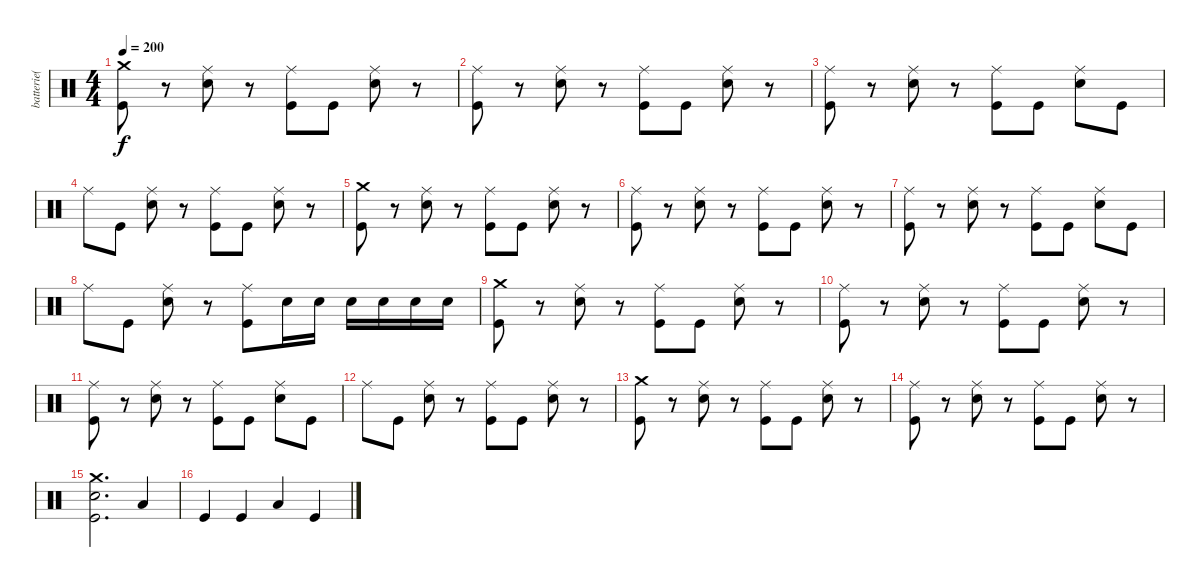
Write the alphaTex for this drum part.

\track ("batterie( Meggers )" "batterie( ") {instrument percussion}
\staff {score}
\articulation defaults
\ts (4 4)
\tempo 200
\clef neutral
\ks c
("Crash medium (hit)" "Kick (hit)").8{dy f} r.8 ("Ride (middle)" "Snare (hit) 2").8 r.8 ("Ride (middle)" "Kick (hit)").8 "Kick (hit)".8 ("Ride (middle)" "Snare (hit) 2").8 r.8 |
("Ride (middle)" "Kick (hit)").8 r.8 ("Ride (middle)" "Snare (hit) 2").8 r.8 ("Ride (middle)" "Kick (hit)").8 "Kick (hit)".8 ("Ride (middle)" "Snare (hit) 2").8 r.8 |
("Ride (middle)" "Kick (hit)").8 r.8 ("Ride (middle)" "Snare (hit) 2").8 r.8 ("Ride (middle)" "Kick (hit)").8 "Kick (hit)".8 ("Ride (middle)" "Snare (hit) 2").8 "Kick (hit)".8 |
"Ride (middle)".8 "Kick (hit)".8 ("Ride (middle)" "Snare (hit) 2").8 r.8 ("Ride (middle)" "Kick (hit)").8 "Kick (hit)".8 ("Ride (middle)" "Snare (hit) 2").8 r.8 |
("Crash medium (hit)" "Kick (hit)").8 r.8 ("Ride (middle)" "Snare (hit) 2").8 r.8 ("Ride (middle)" "Kick (hit)").8 "Kick (hit)".8 ("Ride (middle)" "Snare (hit) 2").8 r.8 |
("Ride (middle)" "Kick (hit)").8 r.8 ("Ride (middle)" "Snare (hit) 2").8 r.8 ("Ride (middle)" "Kick (hit)").8 "Kick (hit)".8 ("Ride (middle)" "Snare (hit) 2").8 r.8 |
("Ride (middle)" "Kick (hit)").8 r.8 ("Ride (middle)" "Snare (hit) 2").8 r.8 ("Ride (middle)" "Kick (hit)").8 "Kick (hit)".8 ("Ride (middle)" "Snare (hit) 2").8 "Kick (hit)".8 |
"Ride (middle)".8 "Kick (hit)".8 ("Ride (middle)" "Snare (hit) 2").8 r.8 ("Ride (middle)" "Kick (hit)").8 "Snare (hit) 2".16 "Snare (hit) 2".16 "Snare (hit) 2".16 "Snare (hit) 2".16 "Snare (hit) 2".16 "Snare (hit) 2".16 |
("Crash medium (hit)" "Kick (hit)").8 r.8 ("Ride (middle)" "Snare (hit) 2").8 r.8 ("Ride (middle)" "Kick (hit)").8 "Kick (hit)".8 ("Ride (middle)" "Snare (hit) 2").8 r.8 |
("Ride (middle)" "Kick (hit)").8 r.8 ("Ride (middle)" "Snare (hit) 2").8 r.8 ("Ride (middle)" "Kick (hit)").8 "Kick (hit)".8 ("Ride (middle)" "Snare (hit) 2").8 r.8 |
("Ride (middle)" "Kick (hit)").8 r.8 ("Ride (middle)" "Snare (hit) 2").8 r.8 ("Ride (middle)" "Kick (hit)").8 "Kick (hit)".8 ("Ride (middle)" "Snare (hit) 2").8 "Kick (hit)".8 |
"Ride (middle)".8 "Kick (hit)".8 ("Ride (middle)" "Snare (hit) 2").8 r.8 ("Ride (middle)" "Kick (hit)").8 "Kick (hit)".8 ("Ride (middle)" "Snare (hit) 2").8 r.8 |
("Crash medium (hit)" "Kick (hit)").8 r.8 ("Ride (middle)" "Snare (hit) 2").8 r.8 ("Ride (middle)" "Kick (hit)").8 "Kick (hit)".8 ("Ride (middle)" "Snare (hit) 2").8 r.8 |
("Ride (middle)" "Kick (hit)").8 r.8 ("Ride (middle)" "Snare (hit) 2").8 r.8 ("Ride (middle)" "Kick (hit)").8 "Kick (hit)".8 ("Ride (middle)" "Snare (hit) 2").8 r.8 |
("Crash medium (hit)" "Snare (hit) 2" "Kick (hit)").2{d} "Low Tom (hit)".4 |
"Kick (hit)".4 "Kick (hit)".4 "Low Tom (hit)".4 "Kick (hit)".4
